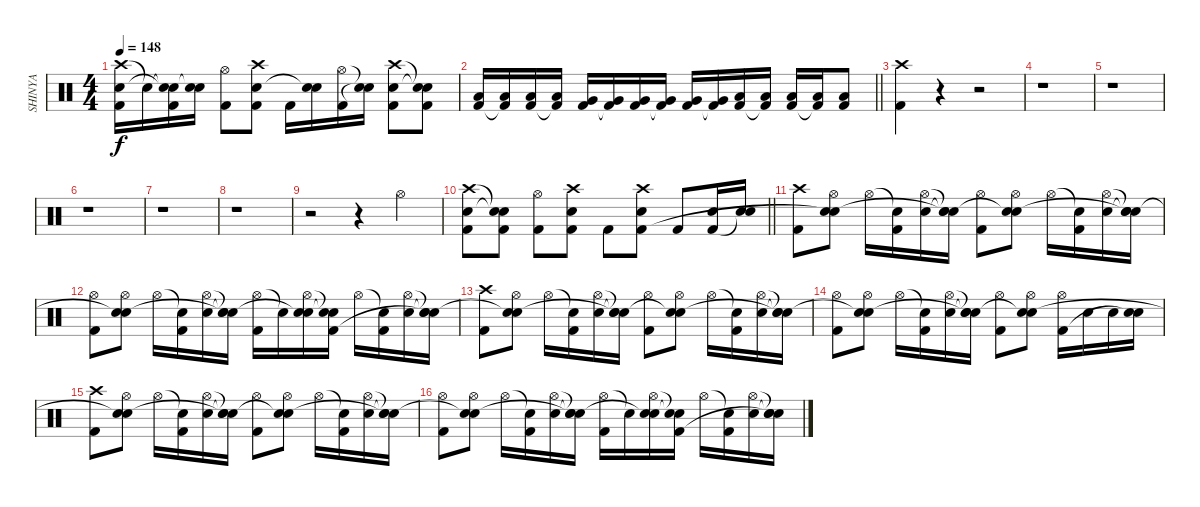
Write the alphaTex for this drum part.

\track ("SHINYA" "SHINYA") {instrument percussion}
\staff {score}
\articulation defaults
\ts (4 4)
\tempo 148
\clef neutral
\ks c
("Crash high (hit)" "Electric Snare (hit)" "Kick (hit) 2").16{dy f} "Snare (hit)"{t}.16 ("Snare (hit)"{t} "Snare (hit)"{t} "Kick (hit) 2").16 ("Electric Snare (hit)" "Snare (hit)"{t}).16 ("Hi-Hat (open)" "Kick (hit) 2").8 ("Crash high (hit)" "Electric Snare (hit)" "Kick (hit) 2").8 "Kick (hit) 2".16 ("Electric Snare (hit)" "Snare (hit)"{t}).16 ("Hi-Hat (open)" "Kick (hit) 2").16 ("Snare (hit)"{t} "Snare (hit)"{t}).16 ("Crash high (hit)" "Electric Snare (hit)" "Kick (hit) 2").8 ("Snare (hit)"{t} "Snare (hit)"{t} "Kick (hit) 2").8 |
\barLineRight lightlight
("Low Tom (hit)" "Kick (hit) 2").16 ("Low Tom (hit)" "Kick (hit) 2"{t}).16 ("Low Tom (hit)" "Kick (hit) 2").16 ("Low Tom (hit)" "Kick (hit) 2"{t}).16 ("Very Low Tom (hit)" "Kick (hit) 2").16 ("Very Low Tom (hit)" "Kick (hit) 2"{t}).16 ("Very Low Tom (hit)" "Kick (hit) 2").16 ("Very Low Tom (hit)" "Kick (hit) 2"{t}).16 ("Very Low Tom (hit)" "Kick (hit) 2").16 ("Very Low Tom (hit)" "Kick (hit) 2"{t}).16 ("Low Floor Tom (hit)" "Kick (hit) 2").16 ("Low Floor Tom (hit)" "Kick (hit) 2"{t}).16 ("Low Floor Tom (hit)" "Kick (hit) 2").16 ("Low Floor Tom (hit)" "Kick (hit) 2"{t}).16 ("Low Floor Tom (hit)" "Kick (hit) 2").8 |
("Crash high (hit)" "Kick (hit) 2").4 r.4 r.2 |
r.1 |
r.1 |
r.1 |
r.1 |
r.1 |
r.2 r.4 "Hi-Hat (open)".4 |
\barLineRight lightlight
("Crash high (hit)" "Electric Snare (hit)" "Kick (hit) 2").8 ("Snare (hit)"{t} "Snare (hit)"{t} "Kick (hit) 2").8 ("Hi-Hat (open)" "Kick (hit) 2").8 ("Crash high (hit)" "Electric Snare (hit)" "Kick (hit) 2").8 "Kick (hit) 2".8 ("Crash high (hit)" "Electric Snare (hit)" "Kick (hit) 2").8 "Kick (hit) 2".8 ("Electric Snare (hit)" "Kick (hit) 2").16 ("Electric Snare (hit)" "Snare (hit)"{t}).16 |
("Crash high (hit)" "Kick (hit) 2").8 ("Hi-Hat (open)" "Electric Snare (hit)" "Snare (hit)"{t}).8 "Hi-Hat (open)".16 ("Snare (hit)"{t} "Kick (hit) 2").16 ("Hi-Hat (open)" "Electric Snare (hit)").16 ("Snare (hit)"{t} "Electric Snare (hit)"{t} "Snare (hit)"{t}).16 ("Hi-Hat (open)" "Kick (hit) 2").8 ("Hi-Hat (open)" "Electric Snare (hit)" "Snare (hit)"{t}).8 "Hi-Hat (open)".16 ("Snare (hit)"{t} "Kick (hit) 2").16 ("Hi-Hat (open)" "Electric Snare (hit)").16 ("Snare (hit)"{t} "Electric Snare (hit)"{t} "Snare (hit)"{t}).16 |
("Hi-Hat (open)" "Kick (hit) 2").8 ("Hi-Hat (open)" "Electric Snare (hit)" "Snare (hit)"{t}).8 "Hi-Hat (open)".16 ("Snare (hit)"{t} "Kick (hit) 2").16 ("Hi-Hat (open)" "Electric Snare (hit)").16 ("Snare (hit)"{t} "Electric Snare (hit)"{t} "Snare (hit)"{t}).16 ("Hi-Hat (open)" "Kick (hit) 2").16 "Snare (hit)"{t}.16 ("Hi-Hat (open)" "Electric Snare (hit)" "Snare (hit)"{t}).16 ("Snare (hit)"{t} "Snare (hit)"{t} "Kick (hit) 2").16 "Hi-Hat (open)".16 ("Snare (hit)"{t} "Kick (hit) 2").16 ("Hi-Hat (open)" "Electric Snare (hit)").16 ("Snare (hit)"{t} "Electric Snare (hit)"{t} "Snare (hit)"{t}).16 |
("Crash high (hit)" "Kick (hit) 2").8 ("Hi-Hat (open)" "Electric Snare (hit)" "Snare (hit)"{t}).8 "Hi-Hat (open)".16 ("Snare (hit)"{t} "Kick (hit) 2").16 ("Hi-Hat (open)" "Electric Snare (hit)").16 ("Snare (hit)"{t} "Electric Snare (hit)"{t} "Snare (hit)"{t}).16 ("Hi-Hat (open)" "Kick (hit) 2").8 ("Hi-Hat (open)" "Electric Snare (hit)" "Snare (hit)"{t}).8 "Hi-Hat (open)".16 ("Snare (hit)"{t} "Kick (hit) 2").16 ("Hi-Hat (open)" "Electric Snare (hit)").16 ("Snare (hit)"{t} "Electric Snare (hit)"{t} "Snare (hit)"{t}).16 |
("Hi-Hat (open)" "Kick (hit) 2").8 ("Hi-Hat (open)" "Electric Snare (hit)" "Snare (hit)"{t}).8 "Hi-Hat (open)".16 ("Snare (hit)"{t} "Kick (hit) 2").16 ("Hi-Hat (open)" "Electric Snare (hit)").16 ("Snare (hit)"{t} "Electric Snare (hit)"{t} "Snare (hit)"{t}).16 ("Hi-Hat (open)" "Kick (hit) 2").8 ("Hi-Hat (open)" "Electric Snare (hit)" "Snare (hit)"{t}).8 ("Hi-Hat (open)" "Kick (hit) 2").16 "Electric Snare (hit)".16 "Electric Snare (hit)".16 ("Electric Snare (hit)" "Snare (hit)"{t}).16 |
("Crash high (hit)" "Kick (hit) 2").8 ("Hi-Hat (open)" "Electric Snare (hit)" "Snare (hit)"{t}).8 "Hi-Hat (open)".16 ("Snare (hit)"{t} "Kick (hit) 2").16 ("Hi-Hat (open)" "Electric Snare (hit)").16 ("Snare (hit)"{t} "Electric Snare (hit)"{t} "Snare (hit)"{t}).16 ("Hi-Hat (open)" "Kick (hit) 2").8 ("Hi-Hat (open)" "Electric Snare (hit)" "Snare (hit)"{t}).8 "Hi-Hat (open)".16 ("Snare (hit)"{t} "Kick (hit) 2").16 ("Hi-Hat (open)" "Electric Snare (hit)").16 ("Snare (hit)"{t} "Electric Snare (hit)"{t} "Snare (hit)"{t}).16 |
("Hi-Hat (open)" "Kick (hit) 2").8 ("Hi-Hat (open)" "Electric Snare (hit)" "Snare (hit)"{t}).8 "Hi-Hat (open)".16 ("Snare (hit)"{t} "Kick (hit) 2").16 ("Hi-Hat (open)" "Electric Snare (hit)").16 ("Snare (hit)"{t} "Electric Snare (hit)"{t} "Snare (hit)"{t}).16 ("Hi-Hat (open)" "Kick (hit) 2").16 "Snare (hit)"{t}.16 ("Hi-Hat (open)" "Electric Snare (hit)" "Snare (hit)"{t}).16 ("Snare (hit)"{t} "Snare (hit)"{t} "Kick (hit) 2").16 "Hi-Hat (open)".16 ("Snare (hit)"{t} "Kick (hit) 2").16 ("Hi-Hat (open)" "Electric Snare (hit)").16 ("Snare (hit)"{t} "Electric Snare (hit)"{t} "Snare (hit)"{t}).16
